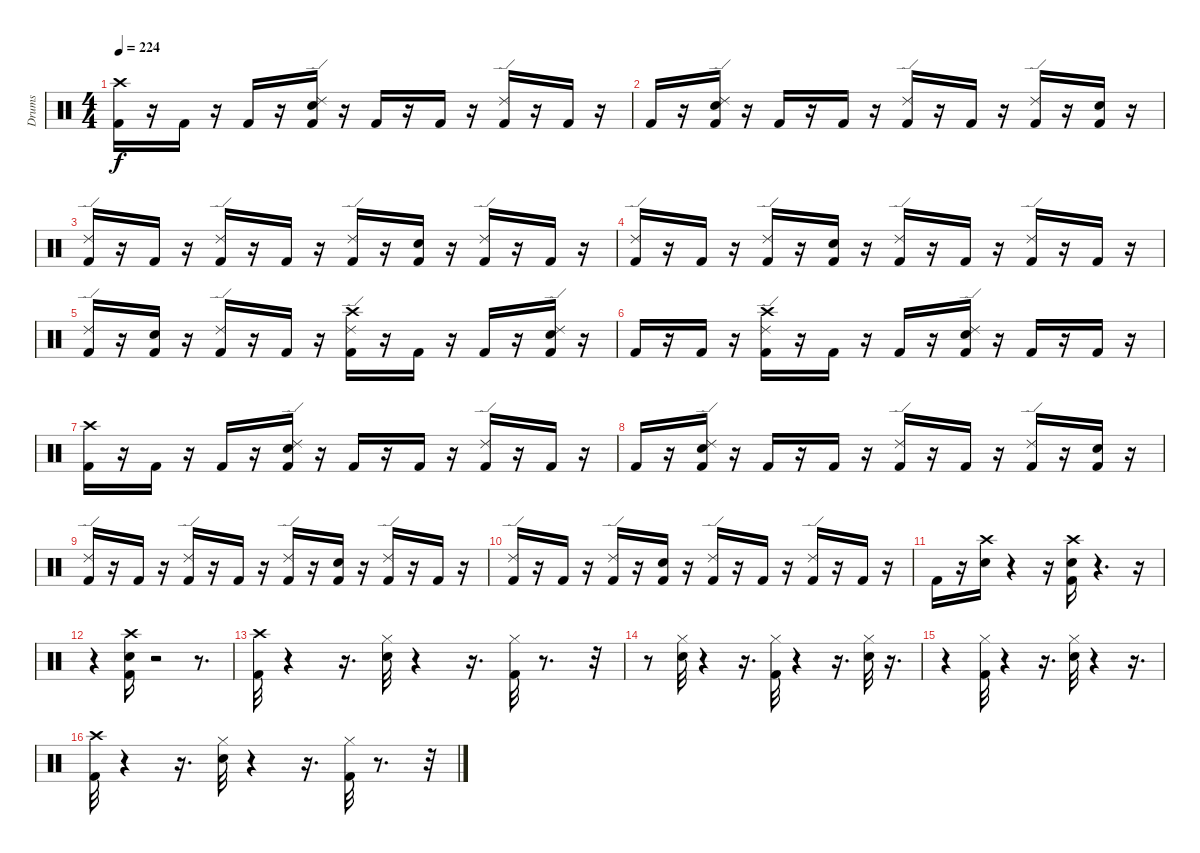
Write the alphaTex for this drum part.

\track ("Drums" "Drums") {instrument percussion}
\staff {score}
\articulation defaults
\ts (4 4)
\tempo 224
\clef neutral
\ks c
("Crash high (hit)" "Kick (hit) 2").16{dy f} r.16 "Kick (hit) 2".16 r.16 "Kick (hit) 2".16 r.16 ("Snare (hit) 2" "Ride (edge) 2" "Kick (hit) 2").16 r.16 "Kick (hit) 2".16 r.16 "Kick (hit) 2".16 r.16 ("Ride (edge) 2" "Kick (hit) 2").16 r.16 "Kick (hit) 2".16 r.16 |
"Kick (hit) 2".16 r.16 ("Ride (edge) 2" "Kick (hit) 2" "Snare (hit) 2").16 r.16 "Kick (hit) 2".16 r.16 "Kick (hit) 2".16 r.16 ("Ride (edge) 2" "Kick (hit) 2").16 r.16 "Kick (hit) 2".16 r.16 ("Ride (edge) 2" "Kick (hit) 2").16 r.16 ("Snare (hit) 2" "Kick (hit) 2").16 r.16 |
("Ride (edge) 2" "Kick (hit) 2").16 r.16 "Kick (hit) 2".16 r.16 ("Ride (edge) 2" "Kick (hit) 2").16 r.16 "Kick (hit) 2".16 r.16 ("Ride (edge) 2" "Kick (hit) 2").16 r.16 ("Kick (hit) 2" "Snare (hit) 2").16 r.16 ("Ride (edge) 2" "Kick (hit) 2").16 r.16 "Kick (hit) 2".16 r.16 |
("Ride (edge) 2" "Kick (hit) 2").16 r.16 "Kick (hit) 2".16 r.16 ("Ride (edge) 2" "Kick (hit) 2").16 r.16 ("Snare (hit) 2" "Kick (hit) 2").16 r.16 ("Ride (edge) 2" "Kick (hit) 2").16 r.16 "Kick (hit) 2".16 r.16 ("Ride (edge) 2" "Kick (hit) 2").16 r.16 "Kick (hit) 2".16 r.16 |
("Ride (edge) 2" "Kick (hit) 2").16 r.16 ("Kick (hit) 2" "Snare (hit) 2").16 r.16 ("Ride (edge) 2" "Kick (hit) 2").16 r.16 "Kick (hit) 2".16 r.16 ("Ride (edge) 2" "Crash high (hit)" "Kick (hit) 2").16 r.16 "Kick (hit) 2".16 r.16 "Kick (hit) 2".16 r.16 ("Ride (edge) 2" "Snare (hit) 2" "Kick (hit) 2").16 r.16 |
"Kick (hit) 2".16 r.16 "Kick (hit) 2".16 r.16 ("Ride (edge) 2" "Crash high (hit)" "Kick (hit) 2").16 r.16 "Kick (hit) 2".16 r.16 "Kick (hit) 2".16 r.16 ("Ride (edge) 2" "Snare (hit) 2" "Kick (hit) 2").16 r.16 "Kick (hit) 2".16 r.16 "Kick (hit) 2".16 r.16 |
("Crash high (hit)" "Kick (hit) 2").16 r.16 "Kick (hit) 2".16 r.16 "Kick (hit) 2".16 r.16 ("Snare (hit) 2" "Ride (edge) 2" "Kick (hit) 2").16 r.16 "Kick (hit) 2".16 r.16 "Kick (hit) 2".16 r.16 ("Ride (edge) 2" "Kick (hit) 2").16 r.16 "Kick (hit) 2".16 r.16 |
"Kick (hit) 2".16 r.16 ("Ride (edge) 2" "Kick (hit) 2" "Snare (hit) 2").16 r.16 "Kick (hit) 2".16 r.16 "Kick (hit) 2".16 r.16 ("Ride (edge) 2" "Kick (hit) 2").16 r.16 "Kick (hit) 2".16 r.16 ("Ride (edge) 2" "Kick (hit) 2").16 r.16 ("Snare (hit) 2" "Kick (hit) 2").16 r.16 |
("Ride (edge) 2" "Kick (hit) 2").16 r.16 "Kick (hit) 2".16 r.16 ("Ride (edge) 2" "Kick (hit) 2").16 r.16 "Kick (hit) 2".16 r.16 ("Ride (edge) 2" "Kick (hit) 2").16 r.16 ("Kick (hit) 2" "Snare (hit) 2").16 r.16 ("Ride (edge) 2" "Kick (hit) 2").16 r.16 "Kick (hit) 2".16 r.16 |
("Ride (edge) 2" "Kick (hit) 2").16 r.16 "Kick (hit) 2".16 r.16 ("Ride (edge) 2" "Kick (hit) 2").16 r.16 ("Snare (hit) 2" "Kick (hit) 2").16 r.16 ("Ride (edge) 2" "Kick (hit) 2").16 r.16 "Kick (hit) 2".16 r.16 ("Ride (edge) 2" "Kick (hit) 2").16 r.16 "Kick (hit) 2".16 r.16 |
"Kick (hit) 2".16 r.16 ("Snare (hit) 2" "Crash high (hit)").16 r.4 r.16 ("Kick (hit) 2" "Snare (hit) 2" "Crash high (hit)").16 r.4{d} r.16 |
r.4 ("Kick (hit) 2" "Snare (hit) 2" "Crash high (hit)").16 r.2 r.8{d} |
("Crash high (hit)" "Kick (hit) 2").32 r.4 r.16{d} ("Hi-Hat (closed)" "Snare (hit) 2").32 r.4 r.16{d} ("Hi-Hat (closed)" "Kick (hit) 2").32 r.8{d} r.32 |
r.8 ("Hi-Hat (closed)" "Snare (hit) 2").32 r.4 r.16{d} ("Hi-Hat (closed)" "Kick (hit) 2").32 r.4 r.16{d} ("Snare (hit) 2" "Hi-Hat (closed)").32 r.16{d} |
r.4 ("Hi-Hat (closed)" "Kick (hit) 2").32 r.4 r.16{d} ("Hi-Hat (closed)" "Snare (hit) 2").32 r.4 r.16{d} |
("Crash high (hit)" "Kick (hit) 2").32 r.4 r.16{d} ("Hi-Hat (closed)" "Snare (hit) 2").32 r.4 r.16{d} ("Kick (hit) 2" "Hi-Hat (closed)").32 r.8{d} r.32
